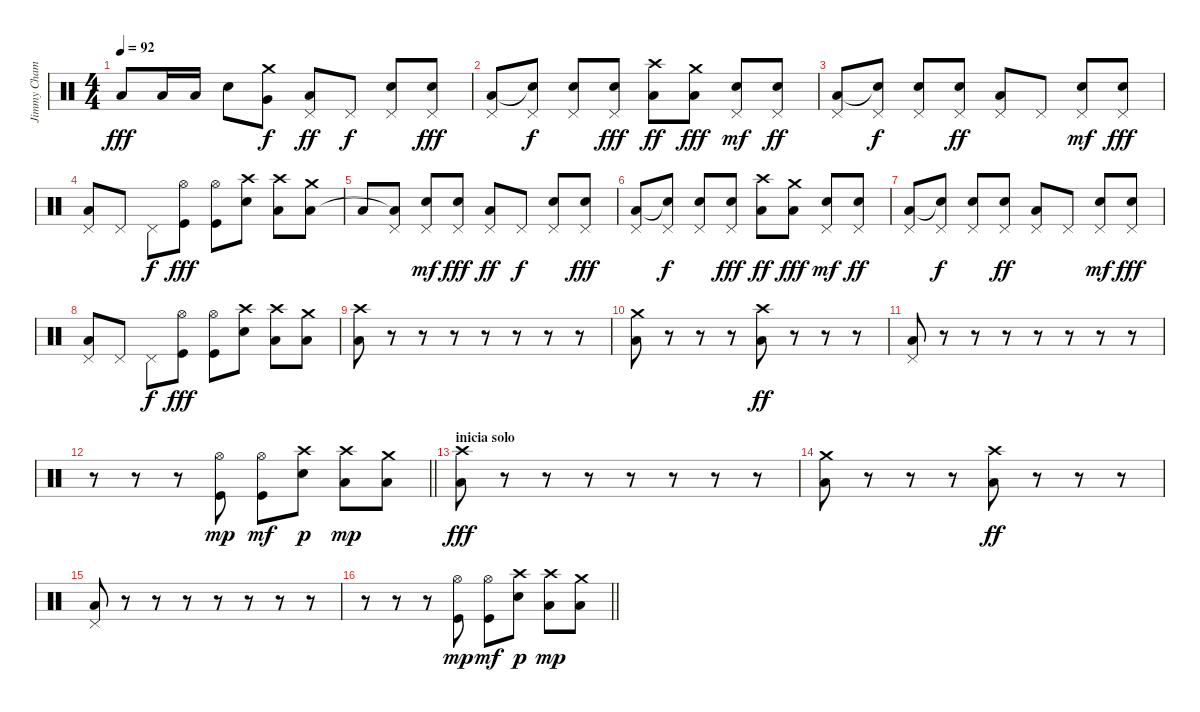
\track ("Jimmy Chamberlin" "Jimmy Cham") {instrument percussion}
\staff {score}
\articulation defaults
\ts (4 4)
\tempo 92
\clef neutral
\ks c "Low Floor Tom (hit)".8{dy fff} "Low Tom (hit)".16 "Low Tom (hit)".16 "Snare (hit) 2".8
("Crash medium (hit)" "Very Low Tom (hit)").8{dy f} ("Pedal Hi-Hat (hit)" "Low Tom (hit)").8{dy ff} "Pedal Hi-Hat (hit)".8{dy f} ("Pedal Hi-Hat (hit)" "Snare (hit) 2").8 ("Pedal Hi-Hat (hit)" "Snare (hit) 2").8{dy fff} |
("Pedal Hi-Hat (hit)" "Low Tom (hit)").8 ("Pedal Hi-Hat (hit)" "Snare (hit)"{t}).8{dy f} ("Pedal Hi-Hat (hit)" "Snare (hit) 2").8 ("Pedal Hi-Hat (hit)" "Snare (hit) 2").8{dy fff} ("Crash high (hit)" "Low Tom (hit)").8{dy ff} ("Crash medium (hit)" "Low Floor Tom (hit)").8{dy fff} ("Pedal Hi-Hat (hit)" "Snare (hit) 2").8{dy mf} ("Pedal Hi-Hat (hit)" "Snare (hit) 2").8{dy ff} |
("Pedal Hi-Hat (hit)" "Low Tom (hit)").8 ("Pedal Hi-Hat (hit)" "Snare (hit)"{t}).8{dy f} ("Pedal Hi-Hat (hit)" "Snare (hit) 2").8 ("Pedal Hi-Hat (hit)" "Snare (hit) 2").8{dy ff} ("Pedal Hi-Hat (hit)" "Low Floor Tom (hit)").8 "Pedal Hi-Hat (hit)".8 ("Pedal Hi-Hat (hit)" "Snare (hit) 2").8{dy mf} ("Pedal Hi-Hat (hit)" "Snare (hit) 2").8{dy fff} |
("Pedal Hi-Hat (hit)" "Low Tom (hit)").8 "Pedal Hi-Hat (hit)".8 "Pedal Hi-Hat (hit)".8{dy f} ("Hi-Hat (open)" "Kick (hit)").8{dy fff} ("Hi-Hat (open)" "Kick (hit)").8 ("Crash high (hit)" "Snare (hit) 2").8 ("Crash high (hit)" "Low Tom (hit)").8 ("Crash medium (hit)" "Low Floor Tom (hit)").8 |
"Low Floor Tom (hit)".8 ("Pedal Hi-Hat (hit)" "Low Floor Tom (hit)"{t}).8 ("Pedal Hi-Hat (hit)" "Snare (hit) 2").8{dy mf} ("Pedal Hi-Hat (hit)" "Snare (hit) 2").8{dy fff} ("Pedal Hi-Hat (hit)" "Low Tom (hit)").8{dy ff} "Pedal Hi-Hat (hit)".8{dy f} ("Pedal Hi-Hat (hit)" "Snare (hit) 2").8 ("Pedal Hi-Hat (hit)" "Snare (hit) 2").8{dy fff} |
("Pedal Hi-Hat (hit)" "Low Tom (hit)").8 ("Pedal Hi-Hat (hit)" "Snare (hit)"{t}).8{dy f} ("Pedal Hi-Hat (hit)" "Snare (hit) 2").8 ("Pedal Hi-Hat (hit)" "Snare (hit) 2").8{dy fff} ("Crash high (hit)" "Low Tom (hit)").8{dy ff} ("Crash medium (hit)" "Low Floor Tom (hit)").8{dy fff} ("Pedal Hi-Hat (hit)" "Snare (hit) 2").8{dy mf} ("Pedal Hi-Hat (hit)" "Snare (hit) 2").8{dy ff} |
("Pedal Hi-Hat (hit)" "Low Tom (hit)").8 ("Pedal Hi-Hat (hit)" "Snare (hit)"{t}).8{dy f} ("Pedal Hi-Hat (hit)" "Snare (hit) 2").8 ("Pedal Hi-Hat (hit)" "Snare (hit) 2").8{dy ff} ("Pedal Hi-Hat (hit)" "Low Floor Tom (hit)").8 "Pedal Hi-Hat (hit)".8 ("Pedal Hi-Hat (hit)" "Snare (hit) 2").8{dy mf} ("Pedal Hi-Hat (hit)" "Snare (hit) 2").8{dy fff} |
("Pedal Hi-Hat (hit)" "Low Tom (hit)").8 "Pedal Hi-Hat (hit)".8 "Pedal Hi-Hat (hit)".8{dy f} ("Hi-Hat (open)" "Kick (hit)").8{dy fff} ("Hi-Hat (open)" "Kick (hit)").8 ("Crash high (hit)" "Snare (hit) 2").8 ("Crash high (hit)" "Low Tom (hit)").8 ("Crash medium (hit)" "Low Floor Tom (hit)").8 |
("Crash high (hit)" "Low Floor Tom (hit)").8 r.8 r.8 r.8 r.8 r.8 r.8 r.8 |
("Crash medium (hit)" "Low Tom (hit)").8 r.8 r.8 r.8 ("Crash high (hit)" "Low Tom (hit)").8{dy ff} r.8 r.8 r.8 |
("Pedal Hi-Hat (hit)" "Low Tom (hit)").8 r.8 r.8 r.8 r.8 r.8 r.8 r.8 |
\barLineRight lightlight
r.8 r.8 r.8 ("Hi-Hat (open)" "Kick (hit)").8{dy mp} ("Hi-Hat (open)" "Kick (hit)").8{dy mf} ("Crash high (hit)" "Snare (hit) 2").8{dy p} ("Crash high (hit)" "Low Tom (hit)").8{dy mp} ("Crash medium (hit)" "Low Floor Tom (hit)").8 |
\section ("" "inicia solo")
("Crash high (hit)" "Low Floor Tom (hit)").8{dy fff} r.8 r.8 r.8 r.8 r.8 r.8 r.8 |
("Crash medium (hit)" "Low Tom (hit)").8 r.8 r.8 r.8 ("Crash high (hit)" "Low Tom (hit)").8{dy ff} r.8 r.8 r.8 |
("Pedal Hi-Hat (hit)" "Low Tom (hit)").8 r.8 r.8 r.8 r.8 r.8 r.8 r.8 |
\barLineRight lightlight
r.8 r.8 r.8 ("Hi-Hat (open)" "Kick (hit)").8{dy mp} ("Hi-Hat (open)" "Kick (hit)").8{dy mf} ("Crash high (hit)" "Snare (hit) 2").8{dy p} ("Crash high (hit)" "Low Tom (hit)").8{dy mp} ("Crash medium (hit)" "Low Floor Tom (hit)").8
